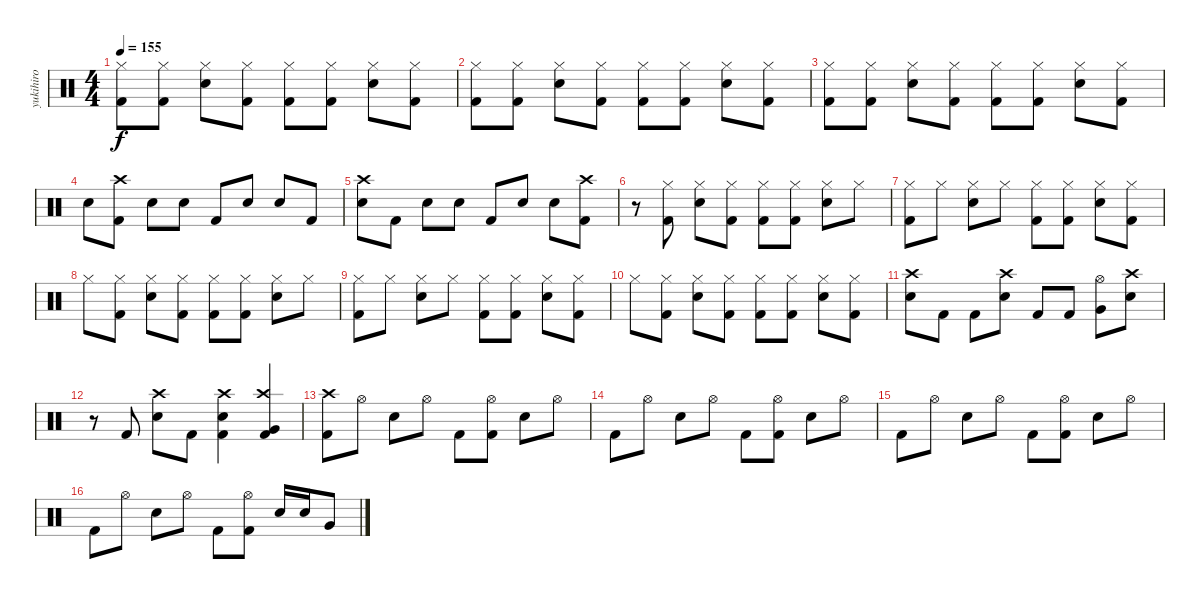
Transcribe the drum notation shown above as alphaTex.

\track ("yukihiro" "yukihiro") {instrument percussion}
\staff {score}
\articulation defaults
\ts (4 4)
\tempo 155
\clef neutral
\ks c
("Hi-Hat (closed)" "Kick (hit) 2").8{dy f} ("Hi-Hat (closed)" "Kick (hit) 2").8 ("Hi-Hat (closed)" "Snare (hit) 2").8 ("Hi-Hat (closed)" "Kick (hit) 2").8 ("Hi-Hat (closed)" "Kick (hit) 2").8 ("Hi-Hat (closed)" "Kick (hit) 2").8 ("Hi-Hat (closed)" "Snare (hit) 2").8 ("Hi-Hat (closed)" "Kick (hit) 2").8 |
("Hi-Hat (closed)" "Kick (hit) 2").8 ("Hi-Hat (closed)" "Kick (hit) 2").8 ("Hi-Hat (closed)" "Snare (hit) 2").8 ("Hi-Hat (closed)" "Kick (hit) 2").8 ("Hi-Hat (closed)" "Kick (hit) 2").8 ("Hi-Hat (closed)" "Kick (hit) 2").8 ("Hi-Hat (closed)" "Snare (hit) 2").8 ("Hi-Hat (closed)" "Kick (hit) 2").8 |
("Hi-Hat (closed)" "Kick (hit) 2").8 ("Hi-Hat (closed)" "Kick (hit) 2").8 ("Hi-Hat (closed)" "Snare (hit) 2").8 ("Hi-Hat (closed)" "Kick (hit) 2").8 ("Hi-Hat (closed)" "Kick (hit) 2").8 ("Hi-Hat (closed)" "Kick (hit) 2").8 ("Hi-Hat (closed)" "Snare (hit) 2").8 ("Hi-Hat (closed)" "Kick (hit) 2").8 |
"Snare (hit) 2".8 ("Crash high (hit)" "Kick (hit) 2").8 "Snare (hit) 2".8 "Snare (hit) 2".8 "Kick (hit) 2".8 "Snare (hit) 2".8 "Snare (hit) 2".8 "Kick (hit) 2".8 |
("Crash high (hit)" "Snare (hit) 2").8 "Kick (hit) 2".8 "Snare (hit) 2".8 "Snare (hit) 2".8 "Kick (hit) 2".8 "Snare (hit) 2".8 "Snare (hit) 2".8 ("Crash high (hit)" "Kick (hit) 2").8 |
r.8 ("Hi-Hat (closed)" "Kick (hit) 2").8 ("Hi-Hat (closed)" "Snare (hit) 2").8 ("Hi-Hat (closed)" "Kick (hit) 2").8 ("Hi-Hat (closed)" "Kick (hit) 2").8 ("Hi-Hat (closed)" "Kick (hit) 2").8 ("Hi-Hat (closed)" "Snare (hit) 2").8 "Hi-Hat (closed)".8 |
("Hi-Hat (closed)" "Kick (hit) 2").8 "Hi-Hat (closed)".8 ("Hi-Hat (closed)" "Snare (hit) 2").8 "Hi-Hat (closed)".8 ("Hi-Hat (closed)" "Kick (hit) 2").8 ("Hi-Hat (closed)" "Kick (hit) 2").8 ("Hi-Hat (closed)" "Snare (hit) 2").8 ("Hi-Hat (closed)" "Kick (hit) 2").8 |
"Hi-Hat (closed)".8 ("Hi-Hat (closed)" "Kick (hit) 2").8 ("Hi-Hat (closed)" "Snare (hit) 2").8 ("Hi-Hat (closed)" "Kick (hit) 2").8 ("Hi-Hat (closed)" "Kick (hit) 2").8 ("Hi-Hat (closed)" "Kick (hit) 2").8 ("Hi-Hat (closed)" "Snare (hit) 2").8 "Hi-Hat (closed)".8 |
("Hi-Hat (closed)" "Kick (hit) 2").8 "Hi-Hat (closed)".8 ("Hi-Hat (closed)" "Snare (hit) 2").8 "Hi-Hat (closed)".8 ("Hi-Hat (closed)" "Kick (hit) 2").8 ("Hi-Hat (closed)" "Kick (hit) 2").8 ("Hi-Hat (closed)" "Snare (hit) 2").8 ("Hi-Hat (closed)" "Kick (hit) 2").8 |
"Hi-Hat (closed)".8 ("Hi-Hat (closed)" "Kick (hit) 2").8 ("Hi-Hat (closed)" "Snare (hit) 2").8 ("Hi-Hat (closed)" "Kick (hit) 2").8 ("Hi-Hat (closed)" "Kick (hit) 2").8 ("Hi-Hat (closed)" "Kick (hit) 2").8 ("Hi-Hat (closed)" "Snare (hit) 2").8 ("Hi-Hat (closed)" "Kick (hit) 2").8 |
("Crash high (hit)" "Snare (hit) 2").8 "Kick (hit) 2".8 "Kick (hit) 2".8 ("Crash high (hit)" "Snare (hit) 2").8 "Kick (hit) 2".8 "Kick (hit) 2".8 ("Hi-Hat (open)" "Very Low Tom (hit)").8 ("Crash high (hit)" "Snare (hit) 2").8 |
r.8 "Kick (hit) 2".8 ("Crash high (hit)" "Snare (hit) 2").8 "Kick (hit) 2".8 ("Crash high (hit)" "Snare (hit) 2" "Kick (hit) 2").4 ("Crash high (hit)" "Very Low Tom (hit)" "Kick (hit) 2").4 |
("Crash high (hit)" "Kick (hit) 2").8 "Hi-Hat (open)".8 "Snare (hit) 2".8 "Hi-Hat (open)".8 "Kick (hit) 2".8 ("Hi-Hat (open)" "Kick (hit) 2").8 "Snare (hit) 2".8 "Hi-Hat (open)".8 |
"Kick (hit) 2".8 "Hi-Hat (open)".8 "Snare (hit) 2".8 "Hi-Hat (open)".8 "Kick (hit) 2".8 ("Hi-Hat (open)" "Kick (hit) 2").8 "Snare (hit) 2".8 "Hi-Hat (open)".8 |
"Kick (hit) 2".8 "Hi-Hat (open)".8 "Snare (hit) 2".8 "Hi-Hat (open)".8 "Kick (hit) 2".8 ("Hi-Hat (open)" "Kick (hit) 2").8 "Snare (hit) 2".8 "Hi-Hat (open)".8 |
"Kick (hit) 2".8 "Hi-Hat (open)".8 "Snare (hit) 2".8 "Hi-Hat (open)".8 "Kick (hit) 2".8 ("Hi-Hat (open)" "Kick (hit) 2").8 "Snare (hit) 2".16 "Snare (hit) 2".16 "Very Low Tom (hit)".8
